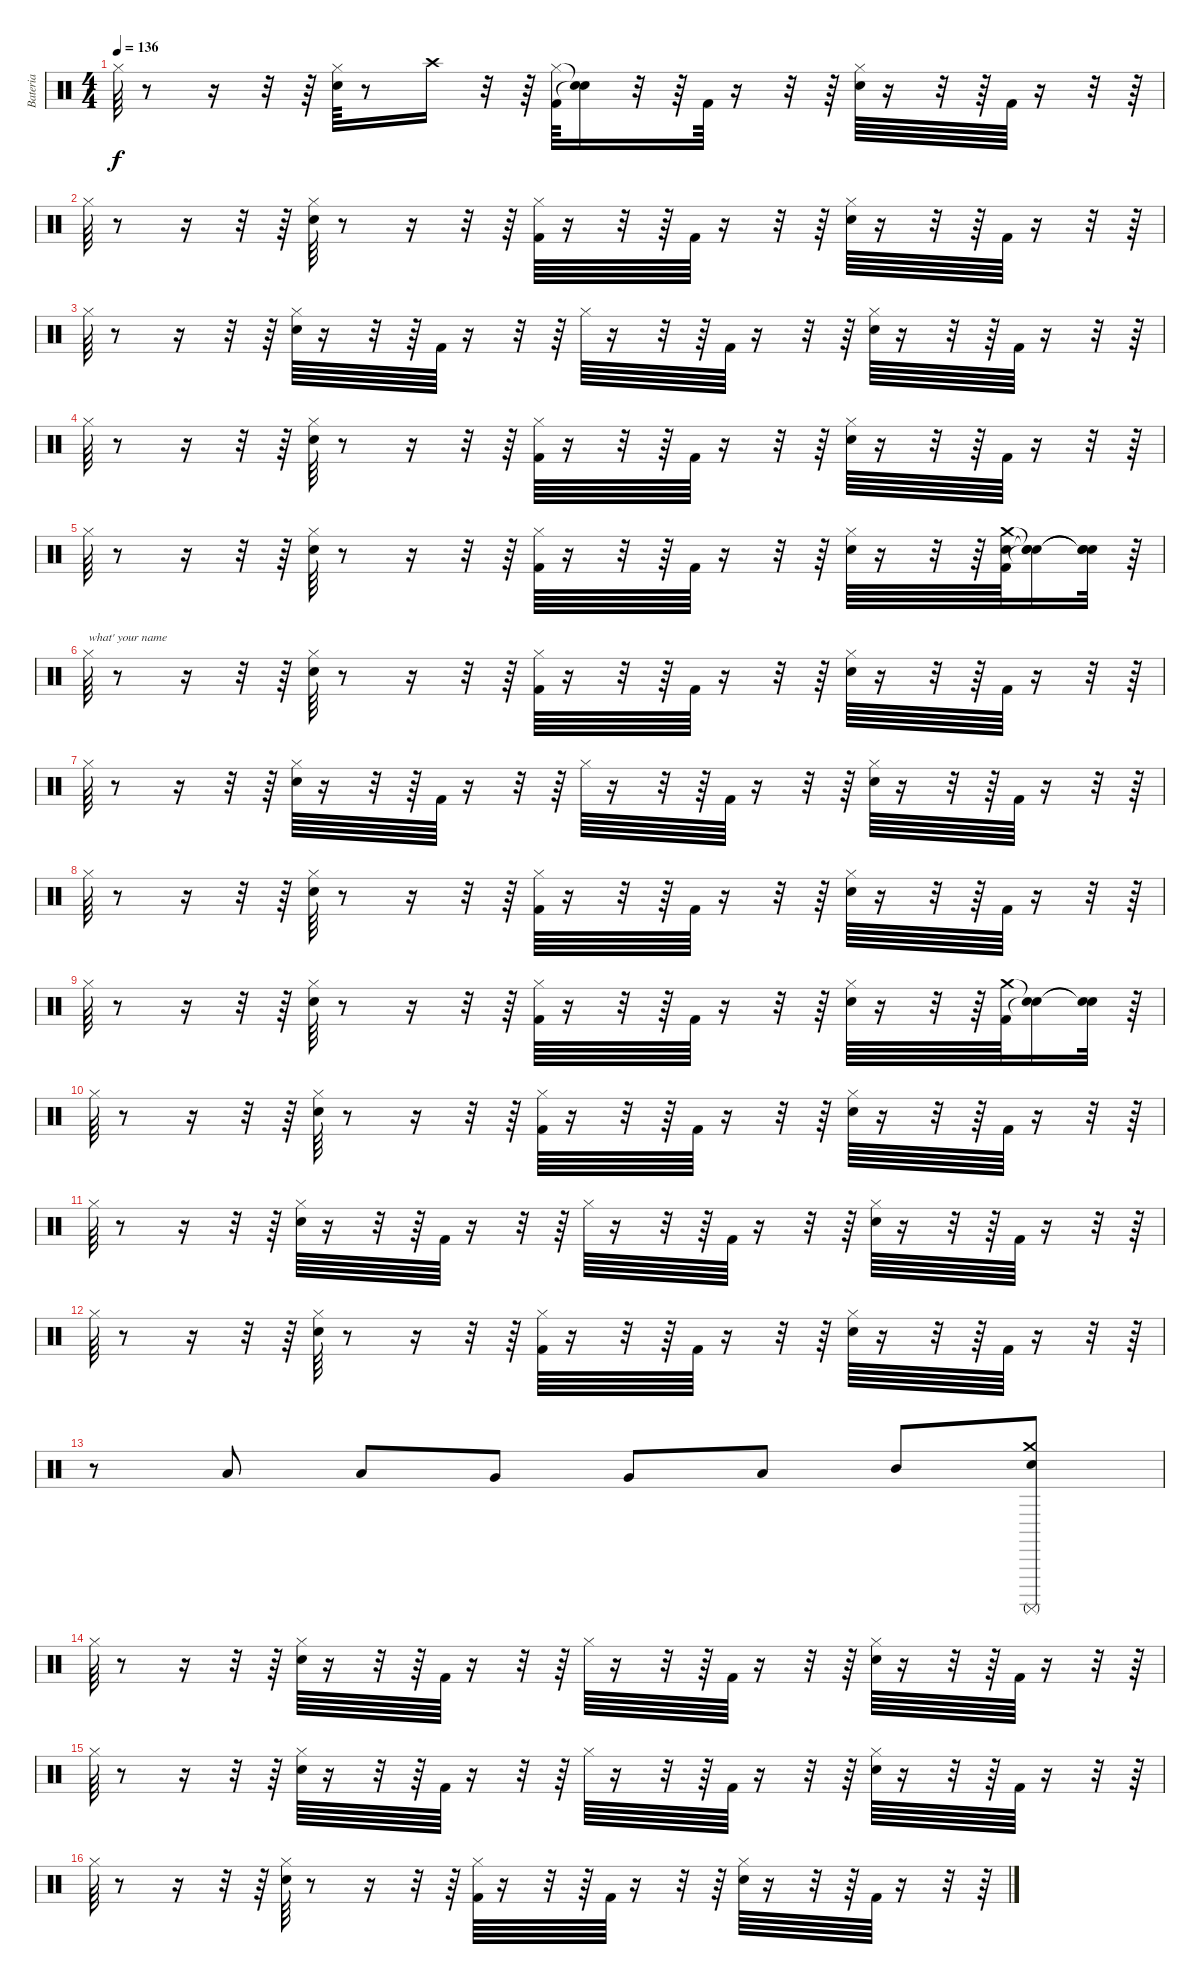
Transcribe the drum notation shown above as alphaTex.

\track ("Bateria" "Bateria") {instrument percussion}
\staff {score}
\articulation defaults
\ts (4 4)
\tempo 136
\clef neutral
\ks c "Hi-Hat (closed)".64{dy f}
r.8 r.16 r.32 r.64 ("Snare (hit) 2" "Hi-Hat (closed)").64 r.8 "Crash high (hit)".16 r.32 r.64 ("Kick (hit) 2" "Hi-Hat (closed)").64 ("Snare (hit)"{t} "Snare (hit)"{t}).16 r.32 r.64 "Kick (hit) 2".64 r.16 r.32 r.64 ("Snare (hit) 2" "Hi-Hat (closed)").64 r.16 r.32 r.64 "Kick (hit) 2".64 r.16 r.32 r.64 |
"Hi-Hat (closed)".64 r.8 r.16 r.32 r.64 ("Snare (hit) 2" "Hi-Hat (closed)").64 r.8 r.16 r.32 r.64 ("Kick (hit) 2" "Hi-Hat (closed)").64 r.16 r.32 r.64 "Kick (hit) 2".64 r.16 r.32 r.64 ("Snare (hit) 2" "Hi-Hat (closed)").64 r.16 r.32 r.64 "Kick (hit) 2".64 r.16 r.32 r.64 |
"Hi-Hat (closed)".64 r.8 r.16 r.32 r.64 ("Snare (hit) 2" "Hi-Hat (closed)").64 r.16 r.32 r.64 "Kick (hit) 2".64 r.16 r.32 r.64 "Hi-Hat (closed)".64 r.16 r.32 r.64 "Kick (hit) 2".64 r.16 r.32 r.64 ("Snare (hit) 2" "Hi-Hat (closed)").64 r.16 r.32 r.64 "Kick (hit) 2".64 r.16 r.32 r.64 |
"Hi-Hat (closed)".64 r.8 r.16 r.32 r.64 ("Snare (hit) 2" "Hi-Hat (closed)").64 r.8 r.16 r.32 r.64 ("Kick (hit) 2" "Hi-Hat (closed)").64 r.16 r.32 r.64 "Kick (hit) 2".64 r.16 r.32 r.64 ("Snare (hit) 2" "Hi-Hat (closed)").64 r.16 r.32 r.64 "Kick (hit) 2".64 r.16 r.32 r.64 |
"Hi-Hat (closed)".64 r.8 r.16 r.32 r.64 ("Snare (hit) 2" "Hi-Hat (closed)").64 r.8 r.16 r.32 r.64 ("Kick (hit) 2" "Hi-Hat (closed)").64 r.16 r.32 r.64 "Kick (hit) 2".64 r.16 r.32 r.64 ("Snare (hit) 2" "Hi-Hat (closed)").64 r.16 r.32 r.64 ("Kick (hit) 2" "Snare (hit) 2" "Crash medium (hit)").64 ("Snare (hit)"{t} "Snare (hit)"{t} "Snare (hit)"{t}).16 ("Snare (hit)"{t} "Snare (hit)"{t} "Snare (hit)"{t}).32 r.64 |
"Hi-Hat (closed)".64{txt "what' your name"} r.8 r.16 r.32 r.64 ("Snare (hit) 2" "Hi-Hat (closed)").64 r.8 r.16 r.32 r.64 ("Kick (hit) 2" "Hi-Hat (closed)").64 r.16 r.32 r.64 "Kick (hit) 2".64 r.16 r.32 r.64 ("Snare (hit) 2" "Hi-Hat (closed)").64 r.16 r.32 r.64 "Kick (hit) 2".64 r.16 r.32 r.64 |
"Hi-Hat (closed)".64 r.8 r.16 r.32 r.64 ("Snare (hit) 2" "Hi-Hat (closed)").64 r.16 r.32 r.64 "Kick (hit) 2".64 r.16 r.32 r.64 "Hi-Hat (closed)".64 r.16 r.32 r.64 "Kick (hit) 2".64 r.16 r.32 r.64 ("Snare (hit) 2" "Hi-Hat (closed)").64 r.16 r.32 r.64 "Kick (hit) 2".64 r.16 r.32 r.64 |
"Hi-Hat (closed)".64 r.8 r.16 r.32 r.64 ("Snare (hit) 2" "Hi-Hat (closed)").64 r.8 r.16 r.32 r.64 ("Kick (hit) 2" "Hi-Hat (closed)").64 r.16 r.32 r.64 "Kick (hit) 2".64 r.16 r.32 r.64 ("Snare (hit) 2" "Hi-Hat (closed)").64 r.16 r.32 r.64 "Kick (hit) 2".64 r.16 r.32 r.64 |
"Hi-Hat (closed)".64 r.8 r.16 r.32 r.64 ("Snare (hit) 2" "Hi-Hat (closed)").64 r.8 r.16 r.32 r.64 ("Kick (hit) 2" "Hi-Hat (closed)").64 r.16 r.32 r.64 "Kick (hit) 2".64 r.16 r.32 r.64 ("Snare (hit) 2" "Hi-Hat (closed)").64 r.16 r.32 r.64 ("Kick (hit) 2" "Crash medium (hit)").64 ("Snare (hit)"{t} "Snare (hit)"{t}).16 ("Snare (hit)"{t} "Snare (hit)"{t}).32 r.64 |
"Hi-Hat (closed)".64 r.8 r.16 r.32 r.64 ("Snare (hit) 2" "Hi-Hat (closed)").64 r.8 r.16 r.32 r.64 ("Kick (hit) 2" "Hi-Hat (closed)").64 r.16 r.32 r.64 "Kick (hit) 2".64 r.16 r.32 r.64 ("Snare (hit) 2" "Hi-Hat (closed)").64 r.16 r.32 r.64 "Kick (hit) 2".64 r.16 r.32 r.64 |
"Hi-Hat (closed)".64 r.8 r.16 r.32 r.64 ("Snare (hit) 2" "Hi-Hat (closed)").64 r.16 r.32 r.64 "Kick (hit) 2".64 r.16 r.32 r.64 "Hi-Hat (closed)".64 r.16 r.32 r.64 "Kick (hit) 2".64 r.16 r.32 r.64 ("Snare (hit) 2" "Hi-Hat (closed)").64 r.16 r.32 r.64 "Kick (hit) 2".64 r.16 r.32 r.64 |
"Hi-Hat (closed)".64 r.8 r.16 r.32 r.64 ("Snare (hit) 2" "Hi-Hat (closed)").64 r.8 r.16 r.32 r.64 ("Kick (hit) 2" "Hi-Hat (closed)").64 r.16 r.32 r.64 "Kick (hit) 2".64 r.16 r.32 r.64 ("Snare (hit) 2" "Hi-Hat (closed)").64 r.16 r.32 r.64 "Kick (hit) 2".64 r.16 r.32 r.64 |
r.8 "Low Floor Tom (hit)".8 "Low Floor Tom (hit)".8 "Very Low Tom (hit)".8 "Very Low Tom (hit)".8 "Low Tom (hit)".8 "Mid Tom (hit)".8 ("Snare (hit) 2" "Crash medium (hit)" "Surdo (mute)").8 |
"Hi-Hat (closed)".64 r.8 r.16 r.32 r.64 ("Snare (hit) 2" "Hi-Hat (closed)").64 r.16 r.32 r.64 "Kick (hit) 2".64 r.16 r.32 r.64 "Hi-Hat (closed)".64 r.16 r.32 r.64 "Kick (hit) 2".64 r.16 r.32 r.64 ("Snare (hit) 2" "Hi-Hat (closed)").64 r.16 r.32 r.64 "Kick (hit) 2".64 r.16 r.32 r.64 |
"Hi-Hat (closed)".64 r.8 r.16 r.32 r.64 ("Snare (hit) 2" "Hi-Hat (closed)").64 r.16 r.32 r.64 "Kick (hit) 2".64 r.16 r.32 r.64 "Hi-Hat (closed)".64 r.16 r.32 r.64 "Kick (hit) 2".64 r.16 r.32 r.64 ("Snare (hit) 2" "Hi-Hat (closed)").64 r.16 r.32 r.64 "Kick (hit) 2".64 r.16 r.32 r.64 |
"Hi-Hat (closed)".64 r.8 r.16 r.32 r.64 ("Snare (hit) 2" "Hi-Hat (closed)").64 r.8 r.16 r.32 r.64 ("Kick (hit) 2" "Hi-Hat (closed)").64 r.16 r.32 r.64 "Kick (hit) 2".64 r.16 r.32 r.64 ("Snare (hit) 2" "Hi-Hat (closed)").64 r.16 r.32 r.64 "Kick (hit) 2".64 r.16 r.32 r.64
